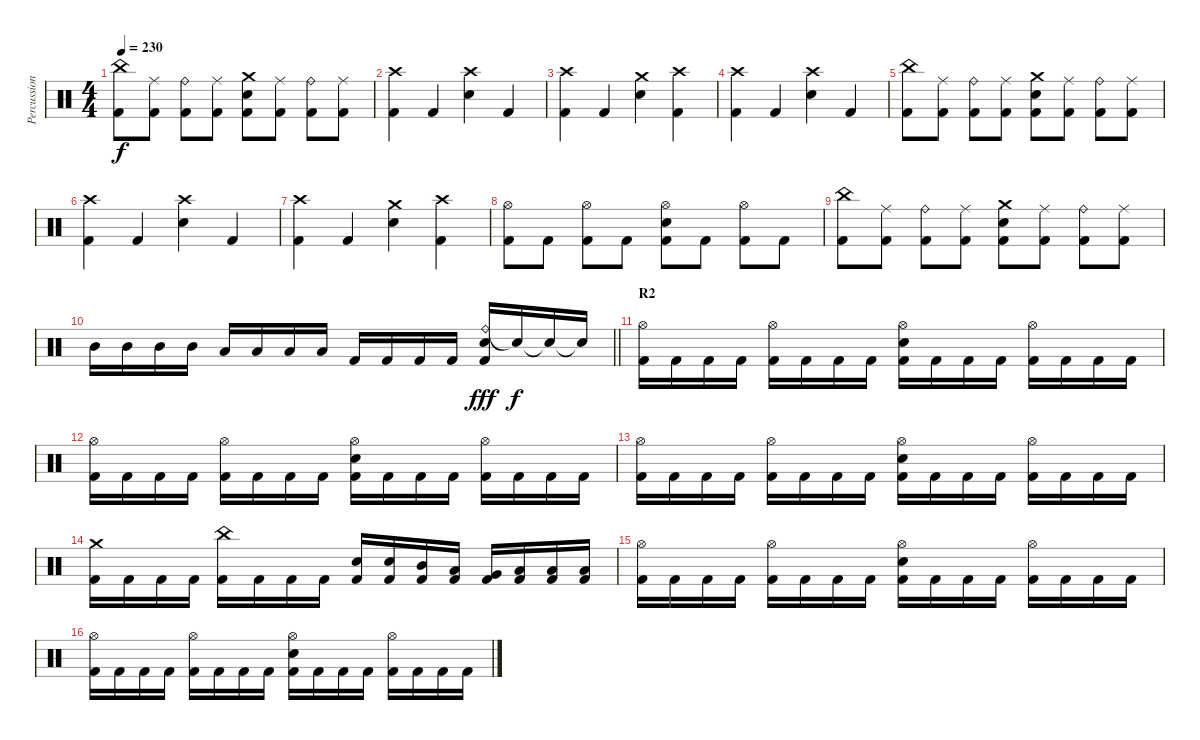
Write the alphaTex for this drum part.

\track ("Percussions" "Percussion") {instrument percussion}
\staff {score}
\articulation defaults
\ts (4 4)
\tempo 230
\clef neutral
\ks c
("China (hit)" "Kick (hit) 2").8{dy f} ("Ride (middle)" "Kick (hit) 2").8 ("Ride (bell)" "Kick (hit) 2").8 ("Ride (middle)" "Kick (hit) 2").8 ("Crash medium (hit)" "Electric Snare (hit)" "Kick (hit) 2").8 ("Ride (middle)" "Kick (hit) 2").8 ("Ride (bell)" "Kick (hit) 2").8 ("Ride (middle)" "Kick (hit) 2").8 |
("Crash high (hit)" "Kick (hit) 2").4 "Kick (hit) 2".4 ("Crash high (hit)" "Electric Snare (hit)").4 "Kick (hit) 2".4 |
("Crash high (hit)" "Kick (hit) 2").4 "Kick (hit) 2".4 ("Crash medium (hit)" "Electric Snare (hit)").4 ("Crash high (hit)" "Kick (hit) 2").4 |
("Crash high (hit)" "Kick (hit) 2").4 "Kick (hit) 2".4 ("Crash high (hit)" "Electric Snare (hit)").4 "Kick (hit) 2".4 |
("China (hit)" "Kick (hit) 2").8 ("Ride (middle)" "Kick (hit) 2").8 ("Ride (bell)" "Kick (hit) 2").8 ("Ride (middle)" "Kick (hit) 2").8 ("Crash medium (hit)" "Electric Snare (hit)" "Kick (hit) 2").8 ("Ride (middle)" "Kick (hit) 2").8 ("Ride (bell)" "Kick (hit) 2").8 ("Ride (middle)" "Kick (hit) 2").8 |
("Crash high (hit)" "Kick (hit) 2").4 "Kick (hit) 2".4 ("Crash high (hit)" "Electric Snare (hit)").4 "Kick (hit) 2".4 |
("Crash high (hit)" "Kick (hit) 2").4 "Kick (hit) 2".4 ("Crash medium (hit)" "Electric Snare (hit)").4 ("Crash high (hit)" "Kick (hit) 2").4 |
("Hi-Hat (open)" "Kick (hit) 2").8 "Kick (hit) 2".8 ("Hi-Hat (open)" "Kick (hit) 2").8 "Kick (hit) 2".8 ("Hi-Hat (open)" "Electric Snare (hit)" "Kick (hit) 2").8 "Kick (hit) 2".8 ("Hi-Hat (open)" "Kick (hit) 2").8 "Kick (hit) 2".8 |
("China (hit)" "Kick (hit) 2").8 ("Ride (middle)" "Kick (hit) 2").8 ("Ride (bell)" "Kick (hit) 2").8 ("Ride (middle)" "Kick (hit) 2").8 ("Crash medium (hit)" "Electric Snare (hit)" "Kick (hit) 2").8 ("Ride (middle)" "Kick (hit) 2").8 ("Ride (bell)" "Kick (hit) 2").8 ("Ride (middle)" "Kick (hit) 2").8 |
\barLineRight lightlight "Mid Tom (hit)".16 "Mid Tom (hit)".16 "Mid Tom (hit)".16 "Mid Tom (hit)".16 "Low Tom (hit)".16 "Low Tom (hit)".16 "Low Tom (hit)".16 "Low Tom (hit)".16 "Kick (hit) 2".16 "Kick (hit) 2".16 "Kick (hit) 2".16 "Kick (hit) 2".16
("Ride (bell)" "Kick (hit) 2" "Electric Snare (hit)").16{dy fff} "Electric Snare (hit)"{t}.16{dy f} "Electric Snare (hit)"{t}.16 "Electric Snare (hit)"{t}.16 |
\section ("" "R2")
("Hi-Hat (open)" "Kick (hit) 2").16 "Kick (hit) 2".16 "Kick (hit) 2".16 "Kick (hit) 2".16 ("Hi-Hat (open)" "Kick (hit) 2").16 "Kick (hit) 2".16 "Kick (hit) 2".16 "Kick (hit) 2".16 ("Hi-Hat (open)" "Electric Snare (hit)" "Kick (hit) 2").16 "Kick (hit) 2".16 "Kick (hit) 2".16 "Kick (hit) 2".16 ("Hi-Hat (open)" "Kick (hit) 2").16 "Kick (hit) 2".16 "Kick (hit) 2".16 "Kick (hit) 2".16 |
("Hi-Hat (open)" "Kick (hit) 2").16 "Kick (hit) 2".16 "Kick (hit) 2".16 "Kick (hit) 2".16 ("Hi-Hat (open)" "Kick (hit) 2").16 "Kick (hit) 2".16 "Kick (hit) 2".16 "Kick (hit) 2".16 ("Hi-Hat (open)" "Electric Snare (hit)" "Kick (hit) 2").16 "Kick (hit) 2".16 "Kick (hit) 2".16 "Kick (hit) 2".16 ("Hi-Hat (open)" "Kick (hit) 2").16 "Kick (hit) 2".16 "Kick (hit) 2".16 "Kick (hit) 2".16 |
("Hi-Hat (open)" "Kick (hit) 2").16 "Kick (hit) 2".16 "Kick (hit) 2".16 "Kick (hit) 2".16 ("Hi-Hat (open)" "Kick (hit) 2").16 "Kick (hit) 2".16 "Kick (hit) 2".16 "Kick (hit) 2".16 ("Hi-Hat (open)" "Electric Snare (hit)" "Kick (hit) 2").16 "Kick (hit) 2".16 "Kick (hit) 2".16 "Kick (hit) 2".16 ("Hi-Hat (open)" "Kick (hit) 2").16 "Kick (hit) 2".16 "Kick (hit) 2".16 "Kick (hit) 2".16 |
("Crash medium (hit)" "Kick (hit) 2").16 "Kick (hit) 2".16 "Kick (hit) 2".16 "Kick (hit) 2".16 ("China (hit)" "Kick (hit) 2").16 "Kick (hit) 2".16 "Kick (hit) 2".16 "Kick (hit) 2".16 ("Electric Snare (hit)" "Kick (hit) 2").16 ("Electric Snare (hit)" "Kick (hit) 2").16 ("Mid Tom (hit)" "Kick (hit) 2").16 ("Low Tom (hit)" "Kick (hit) 2").16 ("Very Low Tom (hit)" "Kick (hit) 2").16 ("Low Floor Tom (hit)" "Kick (hit) 2").16 ("Low Floor Tom (hit)" "Kick (hit) 2").16 ("Low Floor Tom (hit)" "Kick (hit) 2").16 |
("Hi-Hat (open)" "Kick (hit) 2").16 "Kick (hit) 2".16 "Kick (hit) 2".16 "Kick (hit) 2".16 ("Hi-Hat (open)" "Kick (hit) 2").16 "Kick (hit) 2".16 "Kick (hit) 2".16 "Kick (hit) 2".16 ("Hi-Hat (open)" "Electric Snare (hit)" "Kick (hit) 2").16 "Kick (hit) 2".16 "Kick (hit) 2".16 "Kick (hit) 2".16 ("Hi-Hat (open)" "Kick (hit) 2").16 "Kick (hit) 2".16 "Kick (hit) 2".16 "Kick (hit) 2".16 |
("Hi-Hat (open)" "Kick (hit) 2").16 "Kick (hit) 2".16 "Kick (hit) 2".16 "Kick (hit) 2".16 ("Hi-Hat (open)" "Kick (hit) 2").16 "Kick (hit) 2".16 "Kick (hit) 2".16 "Kick (hit) 2".16 ("Hi-Hat (open)" "Electric Snare (hit)" "Kick (hit) 2").16 "Kick (hit) 2".16 "Kick (hit) 2".16 "Kick (hit) 2".16 ("Hi-Hat (open)" "Kick (hit) 2").16 "Kick (hit) 2".16 "Kick (hit) 2".16 "Kick (hit) 2".16
